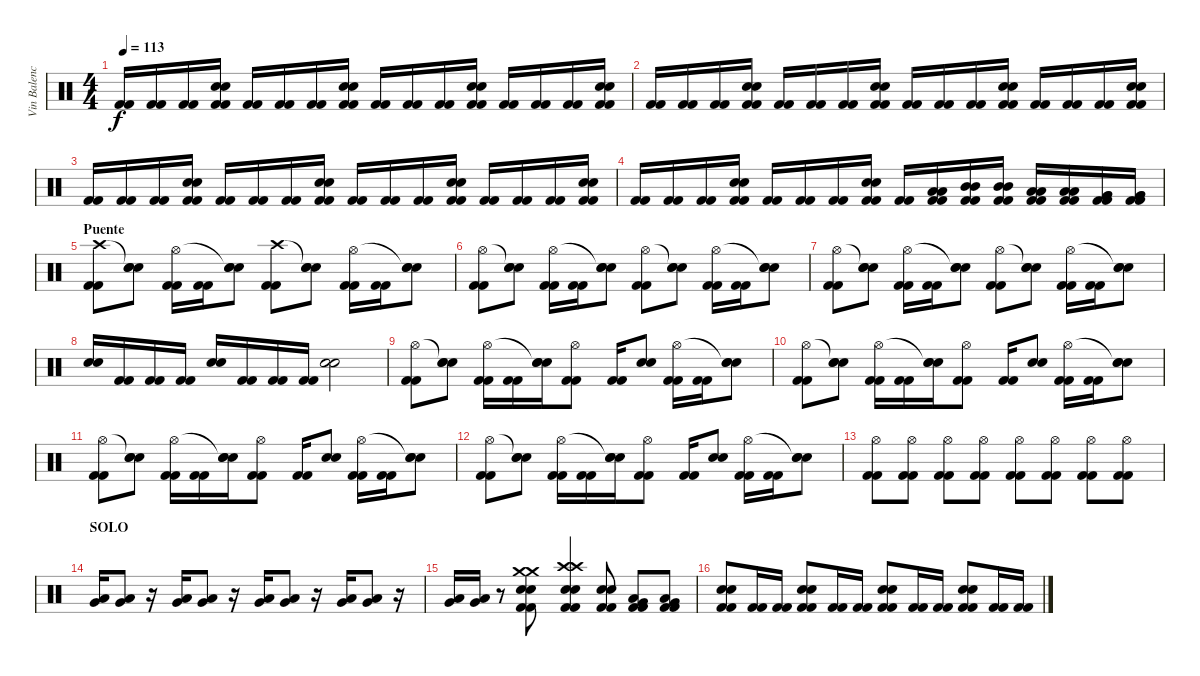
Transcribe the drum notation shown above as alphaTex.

\track ("Vin Balencia (bateria)" "Vin Balenc") {instrument percussion}
\staff {score}
\articulation defaults
\ts (4 4)
\tempo 113
\clef neutral
\ks c
("Kick (hit) 2" "Kick (hit) 2").16{dy f} ("Kick (hit) 2" "Kick (hit) 2").16 ("Kick (hit) 2" "Kick (hit) 2").16 ("Electric Snare (hit)" "Electric Snare (hit)" "Kick (hit) 2" "Kick (hit) 2").16 ("Kick (hit) 2" "Kick (hit) 2").16 ("Kick (hit) 2" "Kick (hit) 2").16 ("Kick (hit) 2" "Kick (hit) 2").16 ("Electric Snare (hit)" "Electric Snare (hit)" "Kick (hit) 2" "Kick (hit) 2").16 ("Kick (hit) 2" "Kick (hit) 2").16 ("Kick (hit) 2" "Kick (hit) 2").16 ("Kick (hit) 2" "Kick (hit) 2").16 ("Electric Snare (hit)" "Electric Snare (hit)" "Kick (hit) 2" "Kick (hit) 2").16 ("Kick (hit) 2" "Kick (hit) 2").16 ("Kick (hit) 2" "Kick (hit) 2").16 ("Kick (hit) 2" "Kick (hit) 2").16 ("Electric Snare (hit)" "Electric Snare (hit)" "Kick (hit) 2" "Kick (hit) 2").16 |
("Kick (hit) 2" "Kick (hit) 2").16 ("Kick (hit) 2" "Kick (hit) 2").16 ("Kick (hit) 2" "Kick (hit) 2").16 ("Electric Snare (hit)" "Electric Snare (hit)" "Kick (hit) 2" "Kick (hit) 2").16 ("Kick (hit) 2" "Kick (hit) 2").16 ("Kick (hit) 2" "Kick (hit) 2").16 ("Kick (hit) 2" "Kick (hit) 2").16 ("Electric Snare (hit)" "Electric Snare (hit)" "Kick (hit) 2" "Kick (hit) 2").16 ("Kick (hit) 2" "Kick (hit) 2").16 ("Kick (hit) 2" "Kick (hit) 2").16 ("Kick (hit) 2" "Kick (hit) 2").16 ("Electric Snare (hit)" "Electric Snare (hit)" "Kick (hit) 2" "Kick (hit) 2").16 ("Kick (hit) 2" "Kick (hit) 2").16 ("Kick (hit) 2" "Kick (hit) 2").16 ("Kick (hit) 2" "Kick (hit) 2").16 ("Electric Snare (hit)" "Electric Snare (hit)" "Kick (hit) 2" "Kick (hit) 2").16 |
("Kick (hit) 2" "Kick (hit) 2").16 ("Kick (hit) 2" "Kick (hit) 2").16 ("Kick (hit) 2" "Kick (hit) 2").16 ("Electric Snare (hit)" "Electric Snare (hit)" "Kick (hit) 2" "Kick (hit) 2").16 ("Kick (hit) 2" "Kick (hit) 2").16 ("Kick (hit) 2" "Kick (hit) 2").16 ("Kick (hit) 2" "Kick (hit) 2").16 ("Electric Snare (hit)" "Electric Snare (hit)" "Kick (hit) 2" "Kick (hit) 2").16 ("Kick (hit) 2" "Kick (hit) 2").16 ("Kick (hit) 2" "Kick (hit) 2").16 ("Kick (hit) 2" "Kick (hit) 2").16 ("Electric Snare (hit)" "Electric Snare (hit)" "Kick (hit) 2" "Kick (hit) 2").16 ("Kick (hit) 2" "Kick (hit) 2").16 ("Kick (hit) 2" "Kick (hit) 2").16 ("Kick (hit) 2" "Kick (hit) 2").16 ("Electric Snare (hit)" "Electric Snare (hit)" "Kick (hit) 2" "Kick (hit) 2").16 |
("Kick (hit) 2" "Kick (hit) 2").16 ("Kick (hit) 2" "Kick (hit) 2").16 ("Kick (hit) 2" "Kick (hit) 2").16 ("Electric Snare (hit)" "Electric Snare (hit)" "Kick (hit) 2" "Kick (hit) 2").16 ("Kick (hit) 2" "Kick (hit) 2").16 ("Kick (hit) 2" "Kick (hit) 2").16 ("Kick (hit) 2" "Kick (hit) 2").16 ("Electric Snare (hit)" "Electric Snare (hit)" "Kick (hit) 2" "Kick (hit) 2").16 ("Kick (hit) 2" "Kick (hit) 2").16 ("Low Floor Tom (hit)" "Low Floor Tom (hit)" "Kick (hit) 2" "Kick (hit) 2").16 ("Mid Tom (hit)" "Mid Tom (hit)" "Kick (hit) 2" "Kick (hit) 2").16 ("Mid Tom (hit)" "Mid Tom (hit)" "Kick (hit) 2" "Kick (hit) 2").16 ("Low Tom (hit)" "Low Tom (hit)" "Kick (hit) 2" "Kick (hit) 2").16 ("Low Tom (hit)" "Low Tom (hit)" "Kick (hit) 2" "Kick (hit) 2").16 ("Very Low Tom (hit)" "Very Low Tom (hit)" "Kick (hit) 2" "Kick (hit) 2").16 ("Very Low Tom (hit)" "Very Low Tom (hit)" "Kick (hit) 2" "Kick (hit) 2").16 |
\section ("" "Puente")
("Kick (hit) 2" "Kick (hit) 2" "Crash high (hit)").8 ("Snare (hit) 2" "Snare (hit) 2" "Snare (hit)"{t}).8 ("Kick (hit) 2" "Kick (hit) 2" "Hi-Hat (open)").16 ("Kick (hit) 2" "Kick (hit) 2").16 ("Snare (hit) 2" "Snare (hit) 2" "Snare (hit)"{t}).8 ("Kick (hit) 2" "Kick (hit) 2" "Crash high (hit)").8 ("Snare (hit) 2" "Snare (hit) 2" "Snare (hit)"{t}).8 ("Kick (hit) 2" "Kick (hit) 2" "Hi-Hat (open)").16 ("Kick (hit) 2" "Kick (hit) 2").16 ("Snare (hit) 2" "Snare (hit) 2" "Snare (hit)"{t}).8 |
("Kick (hit) 2" "Kick (hit) 2" "Hi-Hat (open)").8 ("Snare (hit) 2" "Snare (hit) 2" "Snare (hit)"{t}).8 ("Kick (hit) 2" "Kick (hit) 2" "Hi-Hat (open)").16 ("Kick (hit) 2" "Kick (hit) 2").16 ("Snare (hit) 2" "Snare (hit) 2" "Snare (hit)"{t}).8 ("Kick (hit) 2" "Kick (hit) 2" "Hi-Hat (open)").8 ("Snare (hit) 2" "Snare (hit) 2" "Snare (hit)"{t}).8 ("Kick (hit) 2" "Kick (hit) 2" "Hi-Hat (open)").16 ("Kick (hit) 2" "Kick (hit) 2").16 ("Snare (hit) 2" "Snare (hit) 2" "Snare (hit)"{t}).8 |
("Kick (hit) 2" "Kick (hit) 2" "Hi-Hat (open)").8 ("Snare (hit) 2" "Snare (hit) 2" "Snare (hit)"{t}).8 ("Kick (hit) 2" "Kick (hit) 2" "Hi-Hat (open)").16 ("Kick (hit) 2" "Kick (hit) 2").16 ("Snare (hit) 2" "Snare (hit) 2" "Snare (hit)"{t}).8 ("Kick (hit) 2" "Kick (hit) 2" "Hi-Hat (open)").8 ("Snare (hit) 2" "Snare (hit) 2" "Snare (hit)"{t}).8 ("Kick (hit) 2" "Kick (hit) 2" "Hi-Hat (open)").16 ("Kick (hit) 2" "Kick (hit) 2").16 ("Snare (hit) 2" "Snare (hit) 2" "Snare (hit)"{t}).8 |
("Electric Snare (hit)" "Electric Snare (hit)").16 ("Kick (hit) 2" "Kick (hit) 2").16 ("Kick (hit) 2" "Kick (hit) 2").16 ("Kick (hit) 2" "Kick (hit) 2").16 ("Electric Snare (hit)" "Electric Snare (hit)").16 ("Kick (hit) 2" "Kick (hit) 2").16 ("Kick (hit) 2" "Kick (hit) 2").16 ("Kick (hit) 2" "Kick (hit) 2").16 ("Electric Snare (hit)" "Electric Snare (hit)").2 |
("Kick (hit) 2" "Kick (hit) 2" "Hi-Hat (open)").8 ("Snare (hit) 2" "Snare (hit) 2" "Snare (hit)"{t}).8 ("Kick (hit) 2" "Kick (hit) 2" "Hi-Hat (open)").16 ("Kick (hit) 2" "Kick (hit) 2").16 ("Snare (hit) 2" "Snare (hit) 2" "Snare (hit)"{t}).16 ("Kick (hit) 2" "Kick (hit) 2" "Hi-Hat (open)").8 ("Kick (hit) 2" "Kick (hit) 2").16 ("Snare (hit) 2" "Snare (hit) 2").8 ("Kick (hit) 2" "Kick (hit) 2" "Hi-Hat (open)").16 ("Kick (hit) 2" "Kick (hit) 2").16 ("Snare (hit) 2" "Snare (hit) 2" "Snare (hit)"{t}).8 |
("Kick (hit) 2" "Kick (hit) 2" "Hi-Hat (open)").8 ("Snare (hit) 2" "Snare (hit) 2" "Snare (hit)"{t}).8 ("Kick (hit) 2" "Kick (hit) 2" "Hi-Hat (open)").16 ("Kick (hit) 2" "Kick (hit) 2").16 ("Snare (hit) 2" "Snare (hit) 2" "Snare (hit)"{t}).16 ("Kick (hit) 2" "Kick (hit) 2" "Hi-Hat (open)").8 ("Kick (hit) 2" "Kick (hit) 2").16 ("Snare (hit) 2" "Snare (hit) 2").8 ("Kick (hit) 2" "Kick (hit) 2" "Hi-Hat (open)").16 ("Kick (hit) 2" "Kick (hit) 2").16 ("Snare (hit) 2" "Snare (hit) 2" "Snare (hit)"{t}).8 |
("Kick (hit) 2" "Kick (hit) 2" "Hi-Hat (open)").8 ("Snare (hit) 2" "Snare (hit) 2" "Snare (hit)"{t}).8 ("Kick (hit) 2" "Kick (hit) 2" "Hi-Hat (open)").16 ("Kick (hit) 2" "Kick (hit) 2").16 ("Snare (hit) 2" "Snare (hit) 2" "Snare (hit)"{t}).16 ("Kick (hit) 2" "Kick (hit) 2" "Hi-Hat (open)").8 ("Kick (hit) 2" "Kick (hit) 2").16 ("Snare (hit) 2" "Snare (hit) 2").8 ("Kick (hit) 2" "Kick (hit) 2" "Hi-Hat (open)").16 ("Kick (hit) 2" "Kick (hit) 2").16 ("Snare (hit) 2" "Snare (hit) 2" "Snare (hit)"{t}).8 |
("Kick (hit) 2" "Kick (hit) 2" "Hi-Hat (open)").8 ("Snare (hit) 2" "Snare (hit) 2" "Snare (hit)"{t}).8 ("Kick (hit) 2" "Kick (hit) 2" "Hi-Hat (open)").16 ("Kick (hit) 2" "Kick (hit) 2").16 ("Snare (hit) 2" "Snare (hit) 2" "Snare (hit)"{t}).16 ("Kick (hit) 2" "Kick (hit) 2" "Hi-Hat (open)").8 ("Kick (hit) 2" "Kick (hit) 2").16 ("Snare (hit) 2" "Snare (hit) 2").8 ("Kick (hit) 2" "Kick (hit) 2" "Hi-Hat (open)").16 ("Kick (hit) 2" "Kick (hit) 2").16 ("Snare (hit) 2" "Snare (hit) 2" "Snare (hit)"{t}).8 |
("Hi-Hat (open)" "Kick (hit) 2" "Kick (hit) 2").8 ("Hi-Hat (open)" "Kick (hit) 2" "Kick (hit) 2").8 ("Hi-Hat (open)" "Kick (hit) 2" "Kick (hit) 2").8 ("Hi-Hat (open)" "Kick (hit) 2" "Kick (hit) 2").8 ("Hi-Hat (open)" "Kick (hit) 2" "Kick (hit) 2").8 ("Hi-Hat (open)" "Kick (hit) 2" "Kick (hit) 2").8 ("Hi-Hat (open)" "Kick (hit) 2" "Kick (hit) 2").8 ("Hi-Hat (open)" "Kick (hit) 2" "Kick (hit) 2").8 |
\section ("" "SOLO")
("Very Low Tom (hit)" "Low Floor Tom (hit)").16 ("Very Low Tom (hit)" "Low Floor Tom (hit)").8 r.16 ("Very Low Tom (hit)" "Low Floor Tom (hit)").16 ("Very Low Tom (hit)" "Low Floor Tom (hit)").8 r.16 ("Very Low Tom (hit)" "Low Floor Tom (hit)").16 ("Very Low Tom (hit)" "Low Floor Tom (hit)").8 r.16 ("Very Low Tom (hit)" "Low Floor Tom (hit)").16 ("Very Low Tom (hit)" "Low Floor Tom (hit)").8 r.16 |
("Very Low Tom (hit)" "Low Floor Tom (hit)").16 ("Very Low Tom (hit)" "Low Floor Tom (hit)").16 r.8 ("Crash medium (hit)" "Crash medium (hit)" "Kick (hit) 2" "Kick (hit) 2" "Snare (hit) 2" "Snare (hit) 2").8 ("Crash high (hit)" "Crash high (hit)" "Kick (hit) 2" "Kick (hit) 2" "Snare (hit) 2" "Snare (hit) 2").4 ("Kick (hit) 2" "Kick (hit) 2" "Snare (hit) 2" "Snare (hit) 2").8 ("Low Floor Tom (hit)" "Very Low Tom (hit)" "Kick (hit) 2" "Kick (hit) 2").8 ("Low Floor Tom (hit)" "Very Low Tom (hit)" "Kick (hit) 2" "Kick (hit) 2").8 |
("Electric Snare (hit)" "Electric Snare (hit)" "Kick (hit) 2" "Kick (hit) 2").8 ("Kick (hit) 2" "Kick (hit) 2").16 ("Kick (hit) 2" "Kick (hit) 2").16 ("Electric Snare (hit)" "Electric Snare (hit)" "Kick (hit) 2" "Kick (hit) 2").8 ("Kick (hit) 2" "Kick (hit) 2").16 ("Kick (hit) 2" "Kick (hit) 2").16 ("Electric Snare (hit)" "Electric Snare (hit)" "Kick (hit) 2" "Kick (hit) 2").8 ("Kick (hit) 2" "Kick (hit) 2").16 ("Kick (hit) 2" "Kick (hit) 2").16 ("Electric Snare (hit)" "Electric Snare (hit)" "Kick (hit) 2" "Kick (hit) 2").8 ("Kick (hit) 2" "Kick (hit) 2").16 ("Kick (hit) 2" "Kick (hit) 2").16
